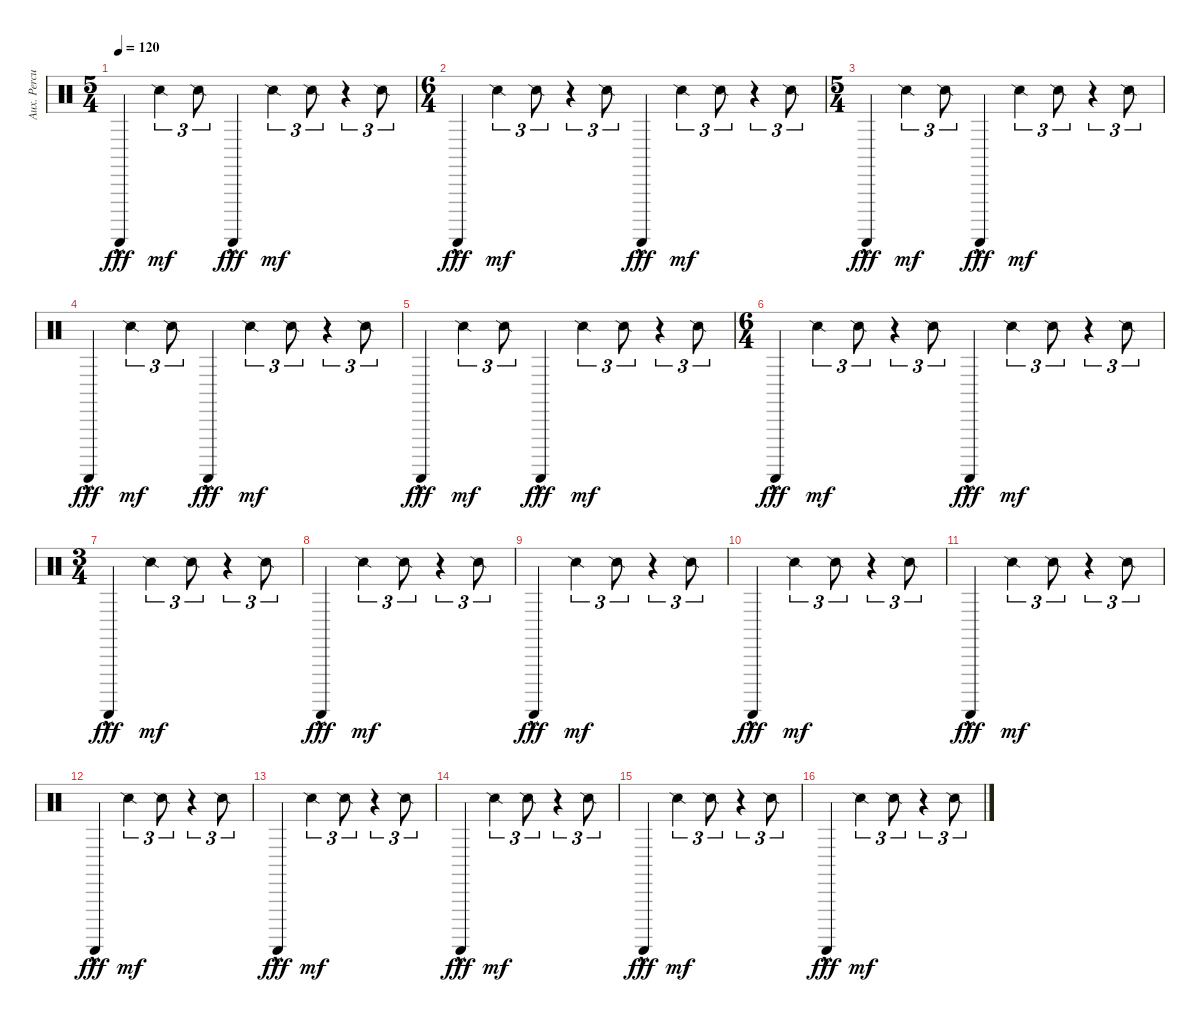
\track ("Aux. Percussion" "Aux. Percu") {instrument percussion}
\staff {score}
\articulation defaults
\ts (5 4)
\tempo 120
\clef neutral
\ks c "Guiro (scrap-return)"{hac}.4{dy fff} "Snare (side stick) 2".4{tu (3 2) dy mf} "Snare (side stick) 2".8{tu (3 2)} "Guiro (scrap-return)"{hac}.4{dy fff} "Snare (side stick) 2".4{tu (3 2) dy mf} "Snare (side stick) 2".8{tu (3 2)}
r.4{tu (3 2)} "Snare (side stick) 2".8{tu (3 2)} |
\ts (6 4)
"Guiro (scrap-return)"{hac}.4{dy fff} "Snare (side stick) 2".4{tu (3 2) dy mf} "Snare (side stick) 2".8{tu (3 2)} r.4{tu (3 2)} "Snare (side stick) 2".8{tu (3 2)} "Guiro (scrap-return)"{hac}.4{dy fff} "Snare (side stick) 2".4{tu (3 2) dy mf} "Snare (side stick) 2".8{tu (3 2)} r.4{tu (3 2)} "Snare (side stick) 2".8{tu (3 2)} |
\ts (5 4)
"Guiro (scrap-return)"{hac}.4{dy fff} "Snare (side stick) 2".4{tu (3 2) dy mf} "Snare (side stick) 2".8{tu (3 2)} "Guiro (scrap-return)"{hac}.4{dy fff} "Snare (side stick) 2".4{tu (3 2) dy mf} "Snare (side stick) 2".8{tu (3 2)} r.4{tu (3 2)} "Snare (side stick) 2".8{tu (3 2)} |
"Guiro (scrap-return)"{hac}.4{dy fff} "Snare (side stick) 2".4{tu (3 2) dy mf} "Snare (side stick) 2".8{tu (3 2)} "Guiro (scrap-return)"{hac}.4{dy fff} "Snare (side stick) 2".4{tu (3 2) dy mf} "Snare (side stick) 2".8{tu (3 2)} r.4{tu (3 2)} "Snare (side stick) 2".8{tu (3 2)} |
"Guiro (scrap-return)"{hac}.4{dy fff} "Snare (side stick) 2".4{tu (3 2) dy mf} "Snare (side stick) 2".8{tu (3 2)} "Guiro (scrap-return)"{hac}.4{dy fff} "Snare (side stick) 2".4{tu (3 2) dy mf} "Snare (side stick) 2".8{tu (3 2)} r.4{tu (3 2)} "Snare (side stick) 2".8{tu (3 2)} |
\ts (6 4)
"Guiro (scrap-return)"{hac}.4{dy fff} "Snare (side stick) 2".4{tu (3 2) dy mf} "Snare (side stick) 2".8{tu (3 2)} r.4{tu (3 2)} "Snare (side stick) 2".8{tu (3 2)} "Guiro (scrap-return)"{hac}.4{dy fff} "Snare (side stick) 2".4{tu (3 2) dy mf} "Snare (side stick) 2".8{tu (3 2)} r.4{tu (3 2)} "Snare (side stick) 2".8{tu (3 2)} |
\ts (3 4)
"Guiro (scrap-return)"{hac}.4{dy fff} "Snare (side stick) 2".4{tu (3 2) dy mf} "Snare (side stick) 2".8{tu (3 2)} r.4{tu (3 2)} "Snare (side stick) 2".8{tu (3 2)} |
"Guiro (scrap-return)"{hac}.4{dy fff} "Snare (side stick) 2".4{tu (3 2) dy mf} "Snare (side stick) 2".8{tu (3 2)} r.4{tu (3 2)} "Snare (side stick) 2".8{tu (3 2)} |
"Guiro (scrap-return)"{hac}.4{dy fff} "Snare (side stick) 2".4{tu (3 2) dy mf} "Snare (side stick) 2".8{tu (3 2)} r.4{tu (3 2)} "Snare (side stick) 2".8{tu (3 2)} |
"Guiro (scrap-return)"{hac}.4{dy fff} "Snare (side stick) 2".4{tu (3 2) dy mf} "Snare (side stick) 2".8{tu (3 2)} r.4{tu (3 2)} "Snare (side stick) 2".8{tu (3 2)} |
"Guiro (scrap-return)"{hac}.4{dy fff} "Snare (side stick) 2".4{tu (3 2) dy mf} "Snare (side stick) 2".8{tu (3 2)} r.4{tu (3 2)} "Snare (side stick) 2".8{tu (3 2)} |
"Guiro (scrap-return)"{hac}.4{dy fff} "Snare (side stick) 2".4{tu (3 2) dy mf} "Snare (side stick) 2".8{tu (3 2)} r.4{tu (3 2)} "Snare (side stick) 2".8{tu (3 2)} |
"Guiro (scrap-return)"{hac}.4{dy fff} "Snare (side stick) 2".4{tu (3 2) dy mf} "Snare (side stick) 2".8{tu (3 2)} r.4{tu (3 2)} "Snare (side stick) 2".8{tu (3 2)} |
"Guiro (scrap-return)"{hac}.4{dy fff} "Snare (side stick) 2".4{tu (3 2) dy mf} "Snare (side stick) 2".8{tu (3 2)} r.4{tu (3 2)} "Snare (side stick) 2".8{tu (3 2)} |
"Guiro (scrap-return)"{hac}.4{dy fff} "Snare (side stick) 2".4{tu (3 2) dy mf} "Snare (side stick) 2".8{tu (3 2)} r.4{tu (3 2)} "Snare (side stick) 2".8{tu (3 2)} |
"Guiro (scrap-return)"{hac}.4{dy fff} "Snare (side stick) 2".4{tu (3 2) dy mf} "Snare (side stick) 2".8{tu (3 2)} r.4{tu (3 2)} "Snare (side stick) 2".8{tu (3 2)}
